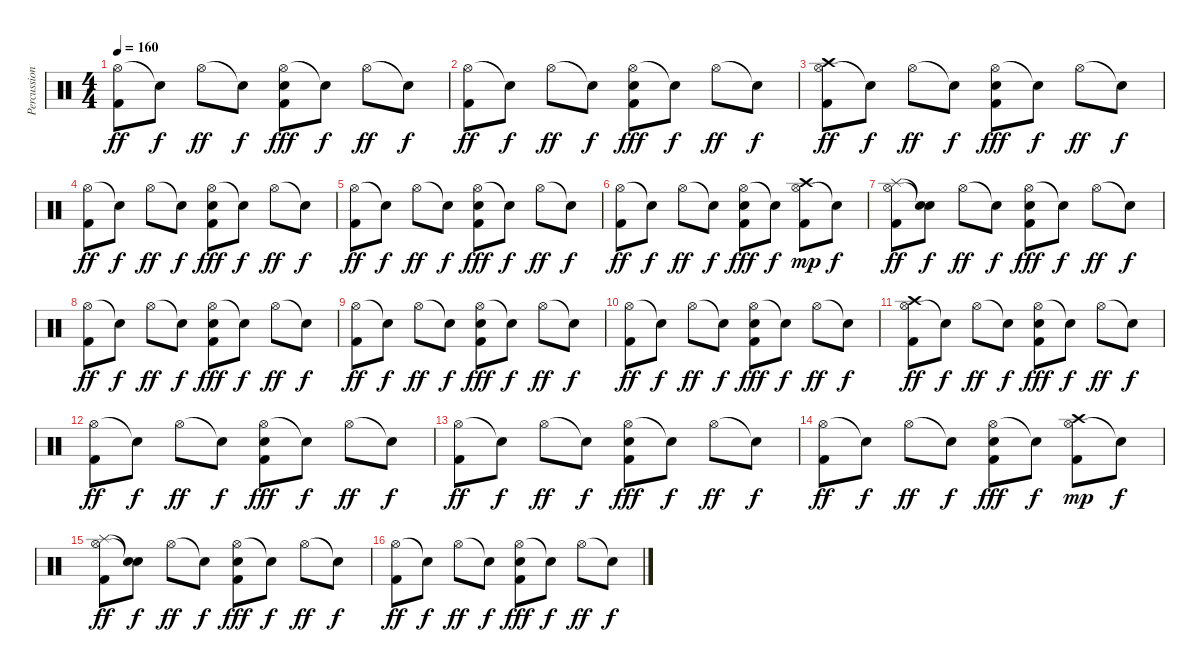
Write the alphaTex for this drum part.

\track ("Percussion" "Percussion") {instrument percussion}
\staff {score}
\articulation defaults
\ts (4 4)
\tempo 160
\clef neutral
\ks c
("Hi-Hat (open)" "Kick (hit) 2").8{dy ff} "Snare (hit)"{t}.8{dy f} "Hi-Hat (open)".8{dy ff} "Snare (hit)"{t}.8{dy f} ("Hi-Hat (open)" "Electric Snare (hit)" "Kick (hit) 2").8{dy fff} "Snare (hit)"{t}.8{dy f} "Hi-Hat (open)".8{dy ff} "Snare (hit)"{t}.8{dy f} |
("Hi-Hat (open)" "Kick (hit) 2").8{dy ff} "Snare (hit)"{t}.8{dy f} "Hi-Hat (open)".8{dy ff} "Snare (hit)"{t}.8{dy f} ("Hi-Hat (open)" "Electric Snare (hit)" "Kick (hit) 2").8{dy fff} "Snare (hit)"{t}.8{dy f} "Hi-Hat (open)".8{dy ff} "Snare (hit)"{t}.8{dy f} |
("Hi-Hat (open)" "Crash high (hit)" "Kick (hit) 2").8{dy ff} "Snare (hit)"{t}.8{dy f} "Hi-Hat (open)".8{dy ff} "Snare (hit)"{t}.8{dy f} ("Hi-Hat (open)" "Electric Snare (hit)" "Kick (hit) 2").8{dy fff} "Snare (hit)"{t}.8{dy f} "Hi-Hat (open)".8{dy ff} "Snare (hit)"{t}.8{dy f} |
("Hi-Hat (open)" "Kick (hit) 2").8{dy ff} "Snare (hit)"{t}.8{dy f} "Hi-Hat (open)".8{dy ff} "Snare (hit)"{t}.8{dy f} ("Hi-Hat (open)" "Electric Snare (hit)" "Kick (hit) 2").8{dy fff} "Snare (hit)"{t}.8{dy f} "Hi-Hat (open)".8{dy ff} "Snare (hit)"{t}.8{dy f} |
("Hi-Hat (open)" "Kick (hit) 2").8{dy ff} "Snare (hit)"{t}.8{dy f} "Hi-Hat (open)".8{dy ff} "Snare (hit)"{t}.8{dy f} ("Hi-Hat (open)" "Electric Snare (hit)" "Kick (hit) 2").8{dy fff} "Snare (hit)"{t}.8{dy f} "Hi-Hat (open)".8{dy ff} "Snare (hit)"{t}.8{dy f} |
("Hi-Hat (open)" "Kick (hit) 2").8{dy ff} "Snare (hit)"{t}.8{dy f} "Hi-Hat (open)".8{dy ff} "Snare (hit)"{t}.8{dy f} ("Hi-Hat (open)" "Electric Snare (hit)" "Kick (hit) 2").8{dy fff} "Snare (hit)"{t}.8{dy f} ("Hi-Hat (open)" "Crash high (hit)" "Kick (hit) 2").8{dy mp} "Snare (hit)"{t}.8{dy f} |
("Hi-Hat (open)" "Splash (hit)" "Kick (hit) 2").8{dy ff} ("Snare (hit)"{t} "Snare (hit)"{t}).8{dy f} "Hi-Hat (open)".8{dy ff} "Snare (hit)"{t}.8{dy f} ("Hi-Hat (open)" "Electric Snare (hit)" "Kick (hit) 2").8{dy fff} "Snare (hit)"{t}.8{dy f} "Hi-Hat (open)".8{dy ff} "Snare (hit)"{t}.8{dy f} |
("Hi-Hat (open)" "Kick (hit) 2").8{dy ff} "Snare (hit)"{t}.8{dy f} "Hi-Hat (open)".8{dy ff} "Snare (hit)"{t}.8{dy f} ("Hi-Hat (open)" "Electric Snare (hit)" "Kick (hit) 2").8{dy fff} "Snare (hit)"{t}.8{dy f} "Hi-Hat (open)".8{dy ff} "Snare (hit)"{t}.8{dy f} |
("Hi-Hat (open)" "Kick (hit) 2").8{dy ff} "Snare (hit)"{t}.8{dy f} "Hi-Hat (open)".8{dy ff} "Snare (hit)"{t}.8{dy f} ("Hi-Hat (open)" "Electric Snare (hit)" "Kick (hit) 2").8{dy fff} "Snare (hit)"{t}.8{dy f} "Hi-Hat (open)".8{dy ff} "Snare (hit)"{t}.8{dy f} |
("Hi-Hat (open)" "Kick (hit) 2").8{dy ff} "Snare (hit)"{t}.8{dy f} "Hi-Hat (open)".8{dy ff} "Snare (hit)"{t}.8{dy f} ("Hi-Hat (open)" "Electric Snare (hit)" "Kick (hit) 2").8{dy fff} "Snare (hit)"{t}.8{dy f} "Hi-Hat (open)".8{dy ff} "Snare (hit)"{t}.8{dy f} |
("Hi-Hat (open)" "Crash high (hit)" "Kick (hit) 2").8{dy ff} "Snare (hit)"{t}.8{dy f} "Hi-Hat (open)".8{dy ff} "Snare (hit)"{t}.8{dy f} ("Hi-Hat (open)" "Electric Snare (hit)" "Kick (hit) 2").8{dy fff} "Snare (hit)"{t}.8{dy f} "Hi-Hat (open)".8{dy ff} "Snare (hit)"{t}.8{dy f} |
("Hi-Hat (open)" "Kick (hit) 2").8{dy ff} "Snare (hit)"{t}.8{dy f} "Hi-Hat (open)".8{dy ff} "Snare (hit)"{t}.8{dy f} ("Hi-Hat (open)" "Electric Snare (hit)" "Kick (hit) 2").8{dy fff} "Snare (hit)"{t}.8{dy f} "Hi-Hat (open)".8{dy ff} "Snare (hit)"{t}.8{dy f} |
("Hi-Hat (open)" "Kick (hit) 2").8{dy ff} "Snare (hit)"{t}.8{dy f} "Hi-Hat (open)".8{dy ff} "Snare (hit)"{t}.8{dy f} ("Hi-Hat (open)" "Electric Snare (hit)" "Kick (hit) 2").8{dy fff} "Snare (hit)"{t}.8{dy f} "Hi-Hat (open)".8{dy ff} "Snare (hit)"{t}.8{dy f} |
("Hi-Hat (open)" "Kick (hit) 2").8{dy ff} "Snare (hit)"{t}.8{dy f} "Hi-Hat (open)".8{dy ff} "Snare (hit)"{t}.8{dy f} ("Hi-Hat (open)" "Electric Snare (hit)" "Kick (hit) 2").8{dy fff} "Snare (hit)"{t}.8{dy f} ("Hi-Hat (open)" "Crash high (hit)" "Kick (hit) 2").8{dy mp} "Snare (hit)"{t}.8{dy f} |
("Hi-Hat (open)" "Splash (hit)" "Kick (hit) 2").8{dy ff} ("Snare (hit)"{t} "Snare (hit)"{t}).8{dy f} "Hi-Hat (open)".8{dy ff} "Snare (hit)"{t}.8{dy f} ("Hi-Hat (open)" "Electric Snare (hit)" "Kick (hit) 2").8{dy fff} "Snare (hit)"{t}.8{dy f} "Hi-Hat (open)".8{dy ff} "Snare (hit)"{t}.8{dy f} |
("Hi-Hat (open)" "Kick (hit) 2").8{dy ff} "Snare (hit)"{t}.8{dy f} "Hi-Hat (open)".8{dy ff} "Snare (hit)"{t}.8{dy f} ("Hi-Hat (open)" "Electric Snare (hit)" "Kick (hit) 2").8{dy fff} "Snare (hit)"{t}.8{dy f} "Hi-Hat (open)".8{dy ff} "Snare (hit)"{t}.8{dy f}
